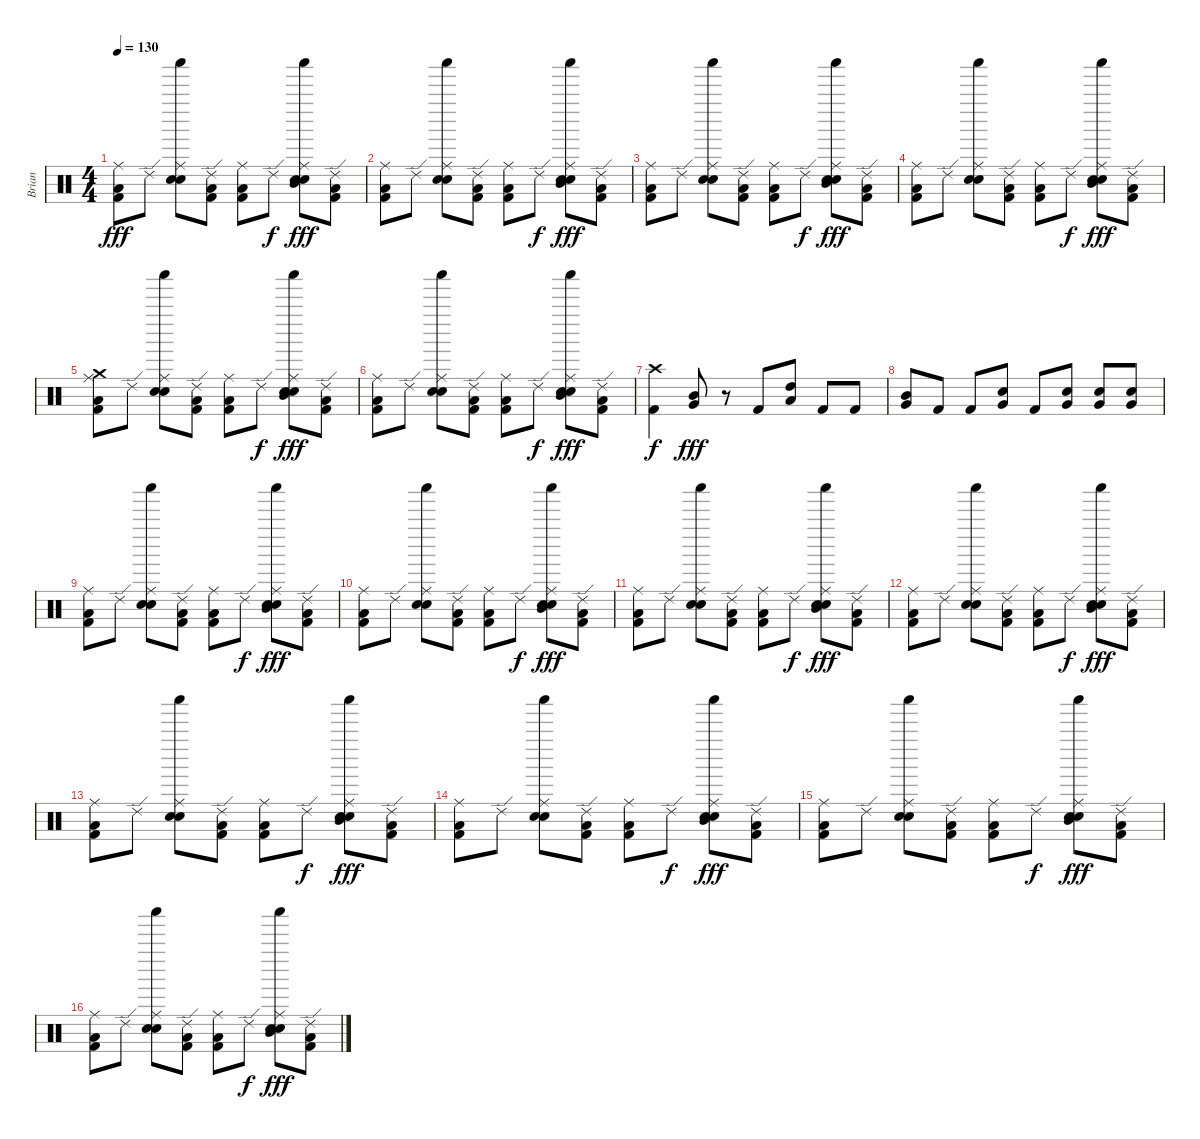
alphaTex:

\track ("Brian" "Brian") {instrument percussion}
\staff {score}
\articulation defaults
\ts (4 4)
\tempo 130
\clef neutral
\ks c
("Ride (middle)" "Low Tom (hit)" "Kick (hit) 2").8{dy fff} "Ride (edge) 2".8 ("Shaker (hit)" "Ride (middle)" "Hand Clap (hit)" "Snare (hit) 2").8 ("Ride (edge) 2" "Low Tom (hit)" "Kick (hit) 2").8 ("Ride (middle)" "Low Tom (hit)" "Kick (hit) 2").8 "Ride (edge) 2".8{dy f} ("Shaker (hit)" "Ride (middle)" "Hand Clap (hit)" "Snare (hit) 2" "Mid Tom (hit)").8{dy fff} ("Ride (edge) 2" "Kick (hit) 2" "Low Tom (hit)").8 |
("Ride (middle)" "Low Tom (hit)" "Kick (hit) 2").8 "Ride (edge) 2".8 ("Shaker (hit)" "Ride (middle)" "Hand Clap (hit)" "Snare (hit) 2").8 ("Ride (edge) 2" "Low Tom (hit)" "Kick (hit) 2").8 ("Ride (middle)" "Low Tom (hit)" "Kick (hit) 2").8 "Ride (edge) 2".8{dy f} ("Shaker (hit)" "Ride (middle)" "Hand Clap (hit)" "Snare (hit) 2" "Mid Tom (hit)").8{dy fff} ("Ride (edge) 2" "Kick (hit) 2" "Low Tom (hit)").8 |
("Ride (middle)" "Low Tom (hit)" "Kick (hit) 2").8 "Ride (edge) 2".8 ("Shaker (hit)" "Ride (middle)" "Hand Clap (hit)" "Snare (hit) 2").8 ("Ride (edge) 2" "Low Tom (hit)" "Kick (hit) 2").8 ("Ride (middle)" "Low Tom (hit)" "Kick (hit) 2").8 "Ride (edge) 2".8{dy f} ("Shaker (hit)" "Ride (middle)" "Hand Clap (hit)" "Snare (hit) 2" "Mid Tom (hit)").8{dy fff} ("Ride (edge) 2" "Kick (hit) 2" "Low Tom (hit)").8 |
("Ride (middle)" "Low Tom (hit)" "Kick (hit) 2").8 "Ride (edge) 2".8 ("Shaker (hit)" "Ride (middle)" "Hand Clap (hit)" "Snare (hit) 2").8 ("Ride (edge) 2" "Low Tom (hit)" "Kick (hit) 2").8 ("Ride (middle)" "Low Tom (hit)" "Kick (hit) 2").8 "Ride (edge) 2".8{dy f} ("Shaker (hit)" "Ride (middle)" "Hand Clap (hit)" "Snare (hit) 2" "Mid Tom (hit)").8{dy fff} ("Ride (edge) 2" "Kick (hit) 2" "Low Tom (hit)").8 |
("Crash medium (hit)" "Ride (middle)" "Low Tom (hit)" "Kick (hit) 2").8 "Ride (edge) 2".8 ("Shaker (hit)" "Ride (middle)" "Hand Clap (hit)" "Snare (hit) 2").8 ("Ride (edge) 2" "Low Tom (hit)" "Kick (hit) 2").8 ("Ride (middle)" "Low Tom (hit)" "Kick (hit) 2").8 "Ride (edge) 2".8{dy f} ("Shaker (hit)" "Ride (middle)" "Hand Clap (hit)" "Snare (hit) 2" "Mid Tom (hit)").8{dy fff} ("Ride (edge) 2" "Kick (hit) 2" "Low Tom (hit)").8 |
("Ride (middle)" "Low Tom (hit)" "Kick (hit) 2").8 "Ride (edge) 2".8 ("Shaker (hit)" "Ride (middle)" "Hand Clap (hit)" "Snare (hit) 2").8 ("Ride (edge) 2" "Low Tom (hit)" "Kick (hit) 2").8 ("Ride (middle)" "Low Tom (hit)" "Kick (hit) 2").8 "Ride (edge) 2".8{dy f} ("Shaker (hit)" "Ride (middle)" "Hand Clap (hit)" "Snare (hit) 2" "Mid Tom (hit)").8{dy fff} ("Ride (edge) 2" "Kick (hit) 2" "Low Tom (hit)").8 |
("Crash high (hit)" "Kick (hit) 2").4{dy f} ("Mid Tom (hit)" "Very Low Tom (hit)").8{dy fff} r.8 "Kick (hit) 2".8 ("High Tom (hit)" "Low Tom (hit)").8 "Kick (hit) 2".8 "Kick (hit) 2".8 |
("Mid Tom (hit)" "Very Low Tom (hit)").8 "Kick (hit) 2".8 "Kick (hit) 2".8 ("Very Low Tom (hit)" "Electric Snare (hit)").8 "Kick (hit) 2".8 ("Very Low Tom (hit)" "Electric Snare (hit)").8 ("Very Low Tom (hit)" "Electric Snare (hit)").8 ("Very Low Tom (hit)" "Electric Snare (hit)").8 |
("Ride (middle)" "Low Tom (hit)" "Kick (hit) 2").8 "Ride (edge) 2".8 ("Shaker (hit)" "Ride (middle)" "Hand Clap (hit)" "Snare (hit) 2").8 ("Ride (edge) 2" "Low Tom (hit)" "Kick (hit) 2").8 ("Ride (middle)" "Low Tom (hit)" "Kick (hit) 2").8 "Ride (edge) 2".8{dy f} ("Shaker (hit)" "Ride (middle)" "Hand Clap (hit)" "Snare (hit) 2" "Mid Tom (hit)").8{dy fff} ("Ride (edge) 2" "Kick (hit) 2" "Low Tom (hit)").8 |
("Ride (middle)" "Low Tom (hit)" "Kick (hit) 2").8 "Ride (edge) 2".8 ("Shaker (hit)" "Ride (middle)" "Hand Clap (hit)" "Snare (hit) 2").8 ("Ride (edge) 2" "Low Tom (hit)" "Kick (hit) 2").8 ("Ride (middle)" "Low Tom (hit)" "Kick (hit) 2").8 "Ride (edge) 2".8{dy f} ("Shaker (hit)" "Ride (middle)" "Hand Clap (hit)" "Snare (hit) 2" "Mid Tom (hit)").8{dy fff} ("Ride (edge) 2" "Kick (hit) 2" "Low Tom (hit)").8 |
("Ride (middle)" "Low Tom (hit)" "Kick (hit) 2").8 "Ride (edge) 2".8 ("Shaker (hit)" "Ride (middle)" "Hand Clap (hit)" "Snare (hit) 2").8 ("Ride (edge) 2" "Low Tom (hit)" "Kick (hit) 2").8 ("Ride (middle)" "Low Tom (hit)" "Kick (hit) 2").8 "Ride (edge) 2".8{dy f} ("Shaker (hit)" "Ride (middle)" "Hand Clap (hit)" "Snare (hit) 2" "Mid Tom (hit)").8{dy fff} ("Ride (edge) 2" "Kick (hit) 2" "Low Tom (hit)").8 |
("Ride (middle)" "Low Tom (hit)" "Kick (hit) 2").8 "Ride (edge) 2".8 ("Shaker (hit)" "Ride (middle)" "Hand Clap (hit)" "Snare (hit) 2").8 ("Ride (edge) 2" "Low Tom (hit)" "Kick (hit) 2").8 ("Ride (middle)" "Low Tom (hit)" "Kick (hit) 2").8 "Ride (edge) 2".8{dy f} ("Shaker (hit)" "Ride (middle)" "Hand Clap (hit)" "Snare (hit) 2" "Mid Tom (hit)").8{dy fff} ("Ride (edge) 2" "Kick (hit) 2" "Low Tom (hit)").8 |
("Ride (middle)" "Low Tom (hit)" "Kick (hit) 2").8 "Ride (edge) 2".8 ("Shaker (hit)" "Ride (middle)" "Hand Clap (hit)" "Snare (hit) 2").8 ("Ride (edge) 2" "Low Tom (hit)" "Kick (hit) 2").8 ("Ride (middle)" "Low Tom (hit)" "Kick (hit) 2").8 "Ride (edge) 2".8{dy f} ("Shaker (hit)" "Ride (middle)" "Hand Clap (hit)" "Snare (hit) 2" "Mid Tom (hit)").8{dy fff} ("Ride (edge) 2" "Kick (hit) 2" "Low Tom (hit)").8 |
("Ride (middle)" "Low Tom (hit)" "Kick (hit) 2").8 "Ride (edge) 2".8 ("Shaker (hit)" "Ride (middle)" "Hand Clap (hit)" "Snare (hit) 2").8 ("Ride (edge) 2" "Low Tom (hit)" "Kick (hit) 2").8 ("Ride (middle)" "Low Tom (hit)" "Kick (hit) 2").8 "Ride (edge) 2".8{dy f} ("Shaker (hit)" "Ride (middle)" "Hand Clap (hit)" "Snare (hit) 2" "Mid Tom (hit)").8{dy fff} ("Ride (edge) 2" "Kick (hit) 2" "Low Tom (hit)").8 |
("Ride (middle)" "Low Tom (hit)" "Kick (hit) 2").8 "Ride (edge) 2".8 ("Shaker (hit)" "Ride (middle)" "Hand Clap (hit)" "Snare (hit) 2").8 ("Ride (edge) 2" "Low Tom (hit)" "Kick (hit) 2").8 ("Ride (middle)" "Low Tom (hit)" "Kick (hit) 2").8 "Ride (edge) 2".8{dy f} ("Shaker (hit)" "Ride (middle)" "Hand Clap (hit)" "Snare (hit) 2" "Mid Tom (hit)").8{dy fff} ("Ride (edge) 2" "Kick (hit) 2" "Low Tom (hit)").8 |
("Ride (middle)" "Low Tom (hit)" "Kick (hit) 2").8 "Ride (edge) 2".8 ("Shaker (hit)" "Ride (middle)" "Hand Clap (hit)" "Snare (hit) 2").8 ("Ride (edge) 2" "Low Tom (hit)" "Kick (hit) 2").8 ("Ride (middle)" "Low Tom (hit)" "Kick (hit) 2").8 "Ride (edge) 2".8{dy f} ("Shaker (hit)" "Ride (middle)" "Hand Clap (hit)" "Snare (hit) 2" "Mid Tom (hit)").8{dy fff} ("Ride (edge) 2" "Kick (hit) 2" "Low Tom (hit)").8
